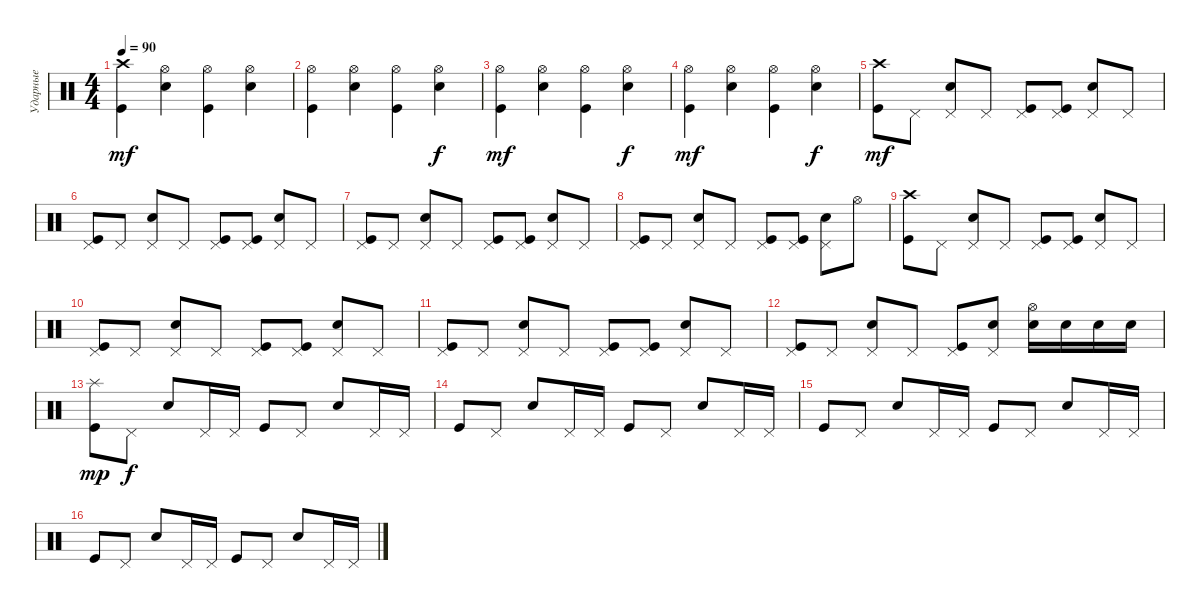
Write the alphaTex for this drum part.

\track ("Ударные" "Ударные") {instrument percussion}
\staff {score}
\articulation defaults
\ts (4 4)
\tempo 90
\clef neutral
\ks c
("Crash high (hit)" "Kick (hit)").4{dy mf} ("Hi-Hat (open)" "Electric Snare (hit)").4 ("Hi-Hat (open)" "Kick (hit)").4 ("Hi-Hat (open)" "Electric Snare (hit)").4 |
("Hi-Hat (open)" "Kick (hit)").4 ("Hi-Hat (open)" "Electric Snare (hit)").4 ("Hi-Hat (open)" "Kick (hit)").4 ("Hi-Hat (open)" "Electric Snare (hit)").4{dy f} |
("Hi-Hat (open)" "Kick (hit)").4{dy mf} ("Hi-Hat (open)" "Electric Snare (hit)").4 ("Hi-Hat (open)" "Kick (hit)").4 ("Hi-Hat (open)" "Electric Snare (hit)").4{dy f} |
("Hi-Hat (open)" "Kick (hit)").4{dy mf} ("Hi-Hat (open)" "Electric Snare (hit)").4 ("Hi-Hat (open)" "Kick (hit)").4 ("Hi-Hat (open)" "Electric Snare (hit)").4{dy f} |
("Crash high (hit)" "Kick (hit)").8{dy mf} "Pedal Hi-Hat (hit)".8 ("Pedal Hi-Hat (hit)" "Electric Snare (hit)").8 "Pedal Hi-Hat (hit)".8 ("Pedal Hi-Hat (hit)" "Kick (hit)").8 ("Pedal Hi-Hat (hit)" "Kick (hit)").8 ("Pedal Hi-Hat (hit)" "Electric Snare (hit)").8 "Pedal Hi-Hat (hit)".8 |
("Pedal Hi-Hat (hit)" "Kick (hit)").8 "Pedal Hi-Hat (hit)".8 ("Pedal Hi-Hat (hit)" "Electric Snare (hit)").8 "Pedal Hi-Hat (hit)".8 ("Pedal Hi-Hat (hit)" "Kick (hit)").8 ("Pedal Hi-Hat (hit)" "Kick (hit)").8 ("Pedal Hi-Hat (hit)" "Electric Snare (hit)").8 "Pedal Hi-Hat (hit)".8 |
("Pedal Hi-Hat (hit)" "Kick (hit)").8 "Pedal Hi-Hat (hit)".8 ("Pedal Hi-Hat (hit)" "Electric Snare (hit)").8 "Pedal Hi-Hat (hit)".8 ("Pedal Hi-Hat (hit)" "Kick (hit)").8 ("Pedal Hi-Hat (hit)" "Kick (hit)").8 ("Pedal Hi-Hat (hit)" "Electric Snare (hit)").8 "Pedal Hi-Hat (hit)".8 |
("Pedal Hi-Hat (hit)" "Kick (hit)").8 "Pedal Hi-Hat (hit)".8 ("Pedal Hi-Hat (hit)" "Electric Snare (hit)").8 "Pedal Hi-Hat (hit)".8 ("Pedal Hi-Hat (hit)" "Kick (hit)").8 ("Pedal Hi-Hat (hit)" "Kick (hit)").8 ("Pedal Hi-Hat (hit)" "Electric Snare (hit)").8 "Hi-Hat (open)".8 |
("Crash high (hit)" "Kick (hit)").8 "Pedal Hi-Hat (hit)".8 ("Pedal Hi-Hat (hit)" "Electric Snare (hit)").8 "Pedal Hi-Hat (hit)".8 ("Pedal Hi-Hat (hit)" "Kick (hit)").8 ("Pedal Hi-Hat (hit)" "Kick (hit)").8 ("Pedal Hi-Hat (hit)" "Electric Snare (hit)").8 "Pedal Hi-Hat (hit)".8 |
("Pedal Hi-Hat (hit)" "Kick (hit)").8 "Pedal Hi-Hat (hit)".8 ("Pedal Hi-Hat (hit)" "Electric Snare (hit)").8 "Pedal Hi-Hat (hit)".8 ("Pedal Hi-Hat (hit)" "Kick (hit)").8 ("Pedal Hi-Hat (hit)" "Kick (hit)").8 ("Pedal Hi-Hat (hit)" "Electric Snare (hit)").8 "Pedal Hi-Hat (hit)".8 |
("Pedal Hi-Hat (hit)" "Kick (hit)").8 "Pedal Hi-Hat (hit)".8 ("Pedal Hi-Hat (hit)" "Electric Snare (hit)").8 "Pedal Hi-Hat (hit)".8 ("Pedal Hi-Hat (hit)" "Kick (hit)").8 ("Pedal Hi-Hat (hit)" "Kick (hit)").8 ("Pedal Hi-Hat (hit)" "Electric Snare (hit)").8 "Pedal Hi-Hat (hit)".8 |
("Pedal Hi-Hat (hit)" "Kick (hit)").8 "Pedal Hi-Hat (hit)".8 ("Pedal Hi-Hat (hit)" "Electric Snare (hit)").8 "Pedal Hi-Hat (hit)".8 ("Pedal Hi-Hat (hit)" "Kick (hit)").8 ("Pedal Hi-Hat (hit)" "Electric Snare (hit)").8 ("Hi-Hat (open)" "Electric Snare (hit)").16 "Electric Snare (hit)".16 "Electric Snare (hit)".16 "Electric Snare (hit)".16 |
("Kick (hit)" "Splash (hit)").8{dy mp} "Pedal Hi-Hat (hit)".8{dy f} "Electric Snare (hit)".8 "Pedal Hi-Hat (hit)".16 "Pedal Hi-Hat (hit)".16 "Kick (hit)".8 "Pedal Hi-Hat (hit)".8 "Electric Snare (hit)".8 "Pedal Hi-Hat (hit)".16 "Pedal Hi-Hat (hit)".16 |
"Kick (hit)".8 "Pedal Hi-Hat (hit)".8 "Electric Snare (hit)".8 "Pedal Hi-Hat (hit)".16 "Pedal Hi-Hat (hit)".16 "Kick (hit)".8 "Pedal Hi-Hat (hit)".8 "Electric Snare (hit)".8 "Pedal Hi-Hat (hit)".16 "Pedal Hi-Hat (hit)".16 |
"Kick (hit)".8 "Pedal Hi-Hat (hit)".8 "Electric Snare (hit)".8 "Pedal Hi-Hat (hit)".16 "Pedal Hi-Hat (hit)".16 "Kick (hit)".8 "Pedal Hi-Hat (hit)".8 "Electric Snare (hit)".8 "Pedal Hi-Hat (hit)".16 "Pedal Hi-Hat (hit)".16 |
"Kick (hit)".8 "Pedal Hi-Hat (hit)".8 "Electric Snare (hit)".8 "Pedal Hi-Hat (hit)".16 "Pedal Hi-Hat (hit)".16 "Kick (hit)".8 "Pedal Hi-Hat (hit)".8 "Electric Snare (hit)".8 "Pedal Hi-Hat (hit)".16 "Pedal Hi-Hat (hit)".16
